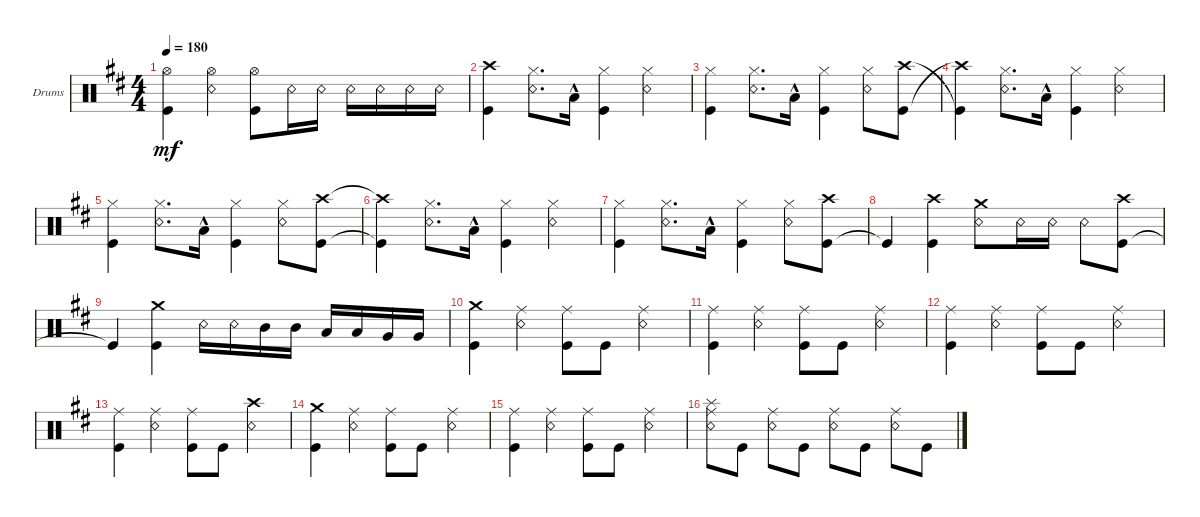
\defaultSystemsLayout 4
\bracketExtendMode groupsimilarinstruments
\firstSystemTrackNameOrientation horizontal
\otherSystemsTrackNameOrientation horizontal
\track ("Drumkit" "Drums") {instrument percussion}
\staff {score}
\articulation defaults
\ts (4 4)
\tempo 180
\clef neutral
\ks bminor
("Kick (hit)" "Hi-Hat (open)").4{dy mf} ("Hi-Hat (open)" "Snare (rim shot)").4 ("Hi-Hat (open)" "Kick (hit)").8 "Snare (rim shot)".16 "Snare (rim shot)".16 "Snare (rim shot)".16 "Snare (rim shot)".16 "Snare (rim shot)".16 "Snare (rim shot)".16 |
("Kick (hit)" "Crash high (hit)").4 ("Hi-Hat (closed)" "Snare (rim shot)").8{d} "Low Tom (hit)"{hac}.16 ("Hi-Hat (closed)" "Kick (hit)").4 ("Hi-Hat (closed)" "Snare (rim shot)").4 |
("Kick (hit)" "Hi-Hat (closed)").4 ("Hi-Hat (closed)" "Snare (rim shot)").8{d} "Low Tom (hit)"{hac}.16 ("Hi-Hat (closed)" "Kick (hit)").4 ("Hi-Hat (closed)" "Snare (rim shot)").8 ("Crash high (hit)" "Kick (hit)").8 |
("Kick (hit)"{t} "Crash high (hit)"{t}).4 ("Hi-Hat (closed)" "Snare (rim shot)").8{d} "Low Tom (hit)"{hac}.16 ("Hi-Hat (closed)" "Kick (hit)").4 ("Hi-Hat (closed)" "Snare (rim shot)").4 |
("Kick (hit)" "Hi-Hat (closed)").4 ("Hi-Hat (closed)" "Snare (rim shot)").8{d} "Low Tom (hit)"{hac}.16 ("Hi-Hat (closed)" "Kick (hit)").4 ("Hi-Hat (closed)" "Snare (rim shot)").8 ("Kick (hit)" "Crash high (hit)").8 |
("Kick (hit)"{t} "Crash high (hit)"{t}).4 ("Hi-Hat (closed)" "Snare (rim shot)").8{d} "Low Tom (hit)"{hac}.16 ("Hi-Hat (closed)" "Kick (hit)").4 ("Hi-Hat (closed)" "Snare (rim shot)").4 |
("Kick (hit)" "Hi-Hat (closed)").4 ("Hi-Hat (closed)" "Snare (rim shot)").8{d} "Low Tom (hit)"{hac}.16 ("Hi-Hat (closed)" "Kick (hit)").4 ("Hi-Hat (closed)" "Snare (rim shot)").8 ("Kick (hit)" "Crash high (hit)").8 |
"Kick (hit)"{t}.4 ("Kick (hit)" "Crash high (hit)").4 ("Crash medium (hit)" "Snare (rim shot)").8 "Snare (rim shot)".16 "Snare (rim shot)".16 "Snare (rim shot)".8 ("Kick (hit)" "Crash high (hit)").8 |
"Kick (hit)"{t}.4 ("Kick (hit)" "Crash medium (hit)").4 "Snare (rim shot)".16 "Snare (rim shot)".16 "Mid Tom (hit)".16 "Mid Tom (hit)".16 "Low Tom (hit)".16 "Low Tom (hit)".16 "Very Low Tom (hit)".16 "Very Low Tom (hit)".16 |
("Kick (hit)" "Crash medium (hit)").4 ("Ride (middle)" "Snare (rim shot)").4 ("Ride (middle)" "Kick (hit)").8 "Kick (hit)".8 ("Ride (middle)" "Snare (rim shot)").4 |
("Kick (hit)" "Ride (middle)").4 ("Ride (middle)" "Snare (rim shot)").4 ("Ride (middle)" "Kick (hit)").8 "Kick (hit)".8 ("Ride (middle)" "Snare (rim shot)").4 |
("Kick (hit)" "Ride (middle)").4 ("Ride (middle)" "Snare (rim shot)").4 ("Ride (middle)" "Kick (hit)").8 "Kick (hit)".8 ("Ride (middle)" "Snare (rim shot)").4 |
("Kick (hit)" "Ride (middle)").4 ("Ride (middle)" "Snare (rim shot)").4 ("Ride (middle)" "Kick (hit)").8 "Kick (hit)".8 ("Snare (rim shot)" "Crash high (hit)").4 |
("Kick (hit)" "Crash medium (hit)").4 ("Ride (middle)" "Snare (rim shot)").4 ("Ride (middle)" "Kick (hit)").8 "Kick (hit)".8 ("Ride (middle)" "Snare (rim shot)").4 |
("Kick (hit)" "Ride (middle)").4 ("Ride (middle)" "Snare (rim shot)").4 ("Ride (middle)" "Kick (hit)").8 "Kick (hit)".8 ("Ride (middle)" "Snare (rim shot)").4 |
("Snare (rim shot)" "Ride (middle)" "Splash (hit)").8 "Kick (hit)".8 ("Snare (rim shot)" "Ride (middle)").8 "Kick (hit)".8 ("Snare (rim shot)" "Ride (middle)").8 "Kick (hit)".8 ("Snare (rim shot)" "Ride (middle)").8 "Kick (hit)".8
